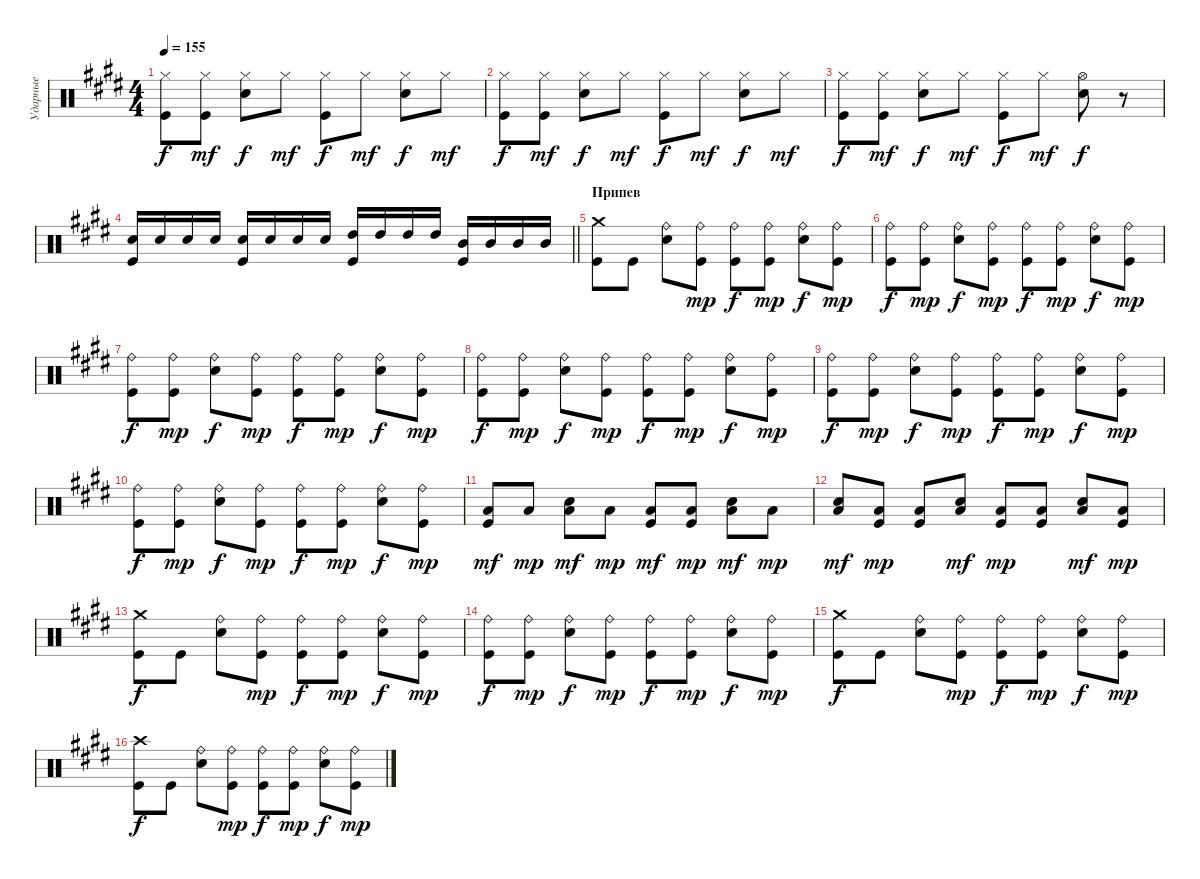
\track ("Ударные" "Ударные") {instrument percussion}
\staff {score}
\articulation defaults
\ts (4 4)
\tempo 155
\clef neutral
\ks e
("Hi-Hat (closed)" "Kick (hit)").8{dy f} ("Hi-Hat (closed)" "Kick (hit)").8{dy mf} ("Hi-Hat (closed)" "Electric Snare (hit)").8{dy f} "Hi-Hat (closed)".8{dy mf} ("Hi-Hat (closed)" "Kick (hit)").8{dy f} "Hi-Hat (closed)".8{dy mf} ("Hi-Hat (closed)" "Electric Snare (hit)").8{dy f} "Hi-Hat (closed)".8{dy mf} |
("Hi-Hat (closed)" "Kick (hit)").8{dy f} ("Hi-Hat (closed)" "Kick (hit)").8{dy mf} ("Hi-Hat (closed)" "Electric Snare (hit)").8{dy f} "Hi-Hat (closed)".8{dy mf} ("Hi-Hat (closed)" "Kick (hit)").8{dy f} "Hi-Hat (closed)".8{dy mf} ("Hi-Hat (closed)" "Electric Snare (hit)").8{dy f} "Hi-Hat (closed)".8{dy mf} |
("Hi-Hat (closed)" "Kick (hit)").8{dy f} ("Hi-Hat (closed)" "Kick (hit)").8{dy mf} ("Hi-Hat (closed)" "Electric Snare (hit)").8{dy f} "Hi-Hat (closed)".8{dy mf} ("Hi-Hat (closed)" "Kick (hit)").8{dy f} "Hi-Hat (closed)".8{dy mf} ("Hi-Hat (open)" "Electric Snare (hit)").8{dy f} r.8 |
\barLineRight lightlight
("Electric Snare (hit)" "Kick (hit)").16 "Electric Snare (hit)".16 "Electric Snare (hit)".16 "Electric Snare (hit)".16 ("Electric Snare (hit)" "Kick (hit)").16 "Electric Snare (hit)".16 "Electric Snare (hit)".16 "Electric Snare (hit)".16 ("High Tom (hit)" "Kick (hit)").16 "High Tom (hit)".16 "High Tom (hit)".16 "High Tom (hit)".16 ("Mid Tom (hit)" "Kick (hit)").16 "Mid Tom (hit)".16 "Mid Tom (hit)".16 "Mid Tom (hit)".16 |
\section ("" "Припев")
("Crash medium (hit)" "Kick (hit)").8 "Kick (hit)".8 ("Ride (bell)" "Electric Snare (hit)").8 ("Ride (bell)" "Kick (hit)").8{dy mp} ("Ride (bell)" "Kick (hit)").8{dy f} ("Ride (bell)" "Kick (hit)").8{dy mp} ("Ride (bell)" "Electric Snare (hit)").8{dy f} ("Ride (bell)" "Kick (hit)").8{dy mp} |
("Ride (bell)" "Kick (hit)").8{dy f} ("Ride (bell)" "Kick (hit)").8{dy mp} ("Ride (bell)" "Electric Snare (hit)").8{dy f} ("Ride (bell)" "Kick (hit)").8{dy mp} ("Ride (bell)" "Kick (hit)").8{dy f} ("Ride (bell)" "Kick (hit)").8{dy mp} ("Ride (bell)" "Electric Snare (hit)").8{dy f} ("Ride (bell)" "Kick (hit)").8{dy mp} |
("Ride (bell)" "Kick (hit)").8{dy f} ("Ride (bell)" "Kick (hit)").8{dy mp} ("Ride (bell)" "Electric Snare (hit)").8{dy f} ("Ride (bell)" "Kick (hit)").8{dy mp} ("Ride (bell)" "Kick (hit)").8{dy f} ("Ride (bell)" "Kick (hit)").8{dy mp} ("Ride (bell)" "Electric Snare (hit)").8{dy f} ("Ride (bell)" "Kick (hit)").8{dy mp} |
("Ride (bell)" "Kick (hit)").8{dy f} ("Ride (bell)" "Kick (hit)").8{dy mp} ("Ride (bell)" "Electric Snare (hit)").8{dy f} ("Ride (bell)" "Kick (hit)").8{dy mp} ("Ride (bell)" "Kick (hit)").8{dy f} ("Ride (bell)" "Kick (hit)").8{dy mp} ("Ride (bell)" "Electric Snare (hit)").8{dy f} ("Ride (bell)" "Kick (hit)").8{dy mp} |
("Ride (bell)" "Kick (hit)").8{dy f} ("Ride (bell)" "Kick (hit)").8{dy mp} ("Ride (bell)" "Electric Snare (hit)").8{dy f} ("Ride (bell)" "Kick (hit)").8{dy mp} ("Ride (bell)" "Kick (hit)").8{dy f} ("Ride (bell)" "Kick (hit)").8{dy mp} ("Ride (bell)" "Electric Snare (hit)").8{dy f} ("Ride (bell)" "Kick (hit)").8{dy mp} |
("Ride (bell)" "Kick (hit)").8{dy f} ("Ride (bell)" "Kick (hit)").8{dy mp} ("Ride (bell)" "Electric Snare (hit)").8{dy f} ("Ride (bell)" "Kick (hit)").8{dy mp} ("Ride (bell)" "Kick (hit)").8{dy f} ("Ride (bell)" "Kick (hit)").8{dy mp} ("Ride (bell)" "Electric Snare (hit)").8{dy f} ("Ride (bell)" "Kick (hit)").8{dy mp} |
("Low Tom (hit)" "Kick (hit)").8{dy mf} "Low Tom (hit)".8{dy mp} ("Low Tom (hit)" "Electric Snare (hit)").8{dy mf} "Low Tom (hit)".8{dy mp} ("Low Tom (hit)" "Kick (hit)").8{dy mf} ("Low Tom (hit)" "Kick (hit)").8{dy mp} ("Low Tom (hit)" "Electric Snare (hit)").8{dy mf} "Low Tom (hit)".8{dy mp} |
("Low Tom (hit)" "Electric Snare (hit)").8{dy mf} ("Low Tom (hit)" "Kick (hit)").8{dy mp} ("Low Tom (hit)" "Kick (hit)").8 ("Low Tom (hit)" "Electric Snare (hit)").8{dy mf} ("Low Tom (hit)" "Kick (hit)").8{dy mp} ("Low Tom (hit)" "Kick (hit)").8 ("Low Tom (hit)" "Electric Snare (hit)").8{dy mf} ("Low Tom (hit)" "Kick (hit)").8{dy mp} |
("Crash medium (hit)" "Kick (hit)").8{dy f} "Kick (hit)".8 ("Ride (bell)" "Electric Snare (hit)").8 ("Ride (bell)" "Kick (hit)").8{dy mp} ("Ride (bell)" "Kick (hit)").8{dy f} ("Ride (bell)" "Kick (hit)").8{dy mp} ("Ride (bell)" "Electric Snare (hit)").8{dy f} ("Ride (bell)" "Kick (hit)").8{dy mp} |
("Ride (bell)" "Kick (hit)").8{dy f} ("Ride (bell)" "Kick (hit)").8{dy mp} ("Ride (bell)" "Electric Snare (hit)").8{dy f} ("Ride (bell)" "Kick (hit)").8{dy mp} ("Ride (bell)" "Kick (hit)").8{dy f} ("Ride (bell)" "Kick (hit)").8{dy mp} ("Ride (bell)" "Electric Snare (hit)").8{dy f} ("Ride (bell)" "Kick (hit)").8{dy mp} |
("Crash medium (hit)" "Kick (hit)").8{dy f} "Kick (hit)".8 ("Ride (bell)" "Electric Snare (hit)").8 ("Ride (bell)" "Kick (hit)").8{dy mp} ("Ride (bell)" "Kick (hit)").8{dy f} ("Ride (bell)" "Kick (hit)").8{dy mp} ("Ride (bell)" "Electric Snare (hit)").8{dy f} ("Ride (bell)" "Kick (hit)").8{dy mp} |
("Crash high (hit)" "Kick (hit)").8{dy f} "Kick (hit)".8 ("Ride (bell)" "Electric Snare (hit)").8 ("Ride (bell)" "Kick (hit)").8{dy mp} ("Ride (bell)" "Kick (hit)").8{dy f} ("Ride (bell)" "Kick (hit)").8{dy mp} ("Ride (bell)" "Electric Snare (hit)").8{dy f} ("Ride (bell)" "Kick (hit)").8{dy mp}
